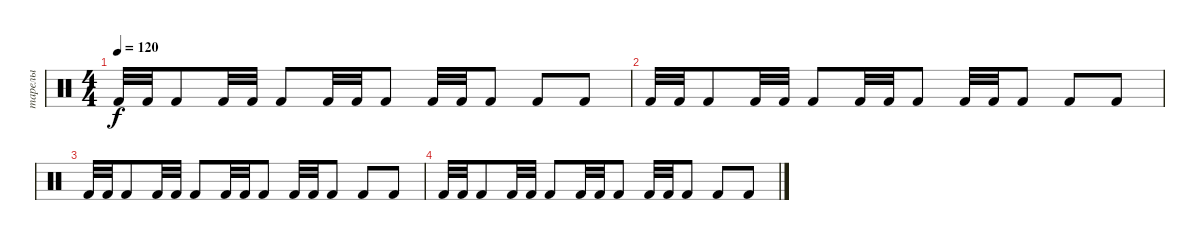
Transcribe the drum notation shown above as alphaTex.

\track ("тарелы" "тарелы") {instrument percussion}
\staff {score}
\articulation defaults
\ts (4 4)
\tempo 120
\clef neutral
\ks c "Kick (hit) 2".32{dy f} "Kick (hit) 2".32 "Kick (hit) 2".8 "Kick (hit) 2".32 "Kick (hit) 2".32 "Kick (hit) 2".8 "Kick (hit) 2".32 "Kick (hit) 2".32 "Kick (hit) 2".8 "Kick (hit) 2".32 "Kick (hit) 2".32 "Kick (hit) 2".8 "Kick (hit) 2".8 "Kick (hit) 2".8
|
"Kick (hit) 2".32 "Kick (hit) 2".32 "Kick (hit) 2".8 "Kick (hit) 2".32 "Kick (hit) 2".32 "Kick (hit) 2".8 "Kick (hit) 2".32 "Kick (hit) 2".32 "Kick (hit) 2".8 "Kick (hit) 2".32 "Kick (hit) 2".32 "Kick (hit) 2".8 "Kick (hit) 2".8 "Kick (hit) 2".8 |
"Kick (hit) 2".32 "Kick (hit) 2".32 "Kick (hit) 2".8 "Kick (hit) 2".32 "Kick (hit) 2".32 "Kick (hit) 2".8 "Kick (hit) 2".32 "Kick (hit) 2".32 "Kick (hit) 2".8 "Kick (hit) 2".32 "Kick (hit) 2".32 "Kick (hit) 2".8 "Kick (hit) 2".8 "Kick (hit) 2".8 |
"Kick (hit) 2".32 "Kick (hit) 2".32 "Kick (hit) 2".8 "Kick (hit) 2".32 "Kick (hit) 2".32 "Kick (hit) 2".8 "Kick (hit) 2".32 "Kick (hit) 2".32 "Kick (hit) 2".8 "Kick (hit) 2".32 "Kick (hit) 2".32 "Kick (hit) 2".8 "Kick (hit) 2".8 "Kick (hit) 2".8
